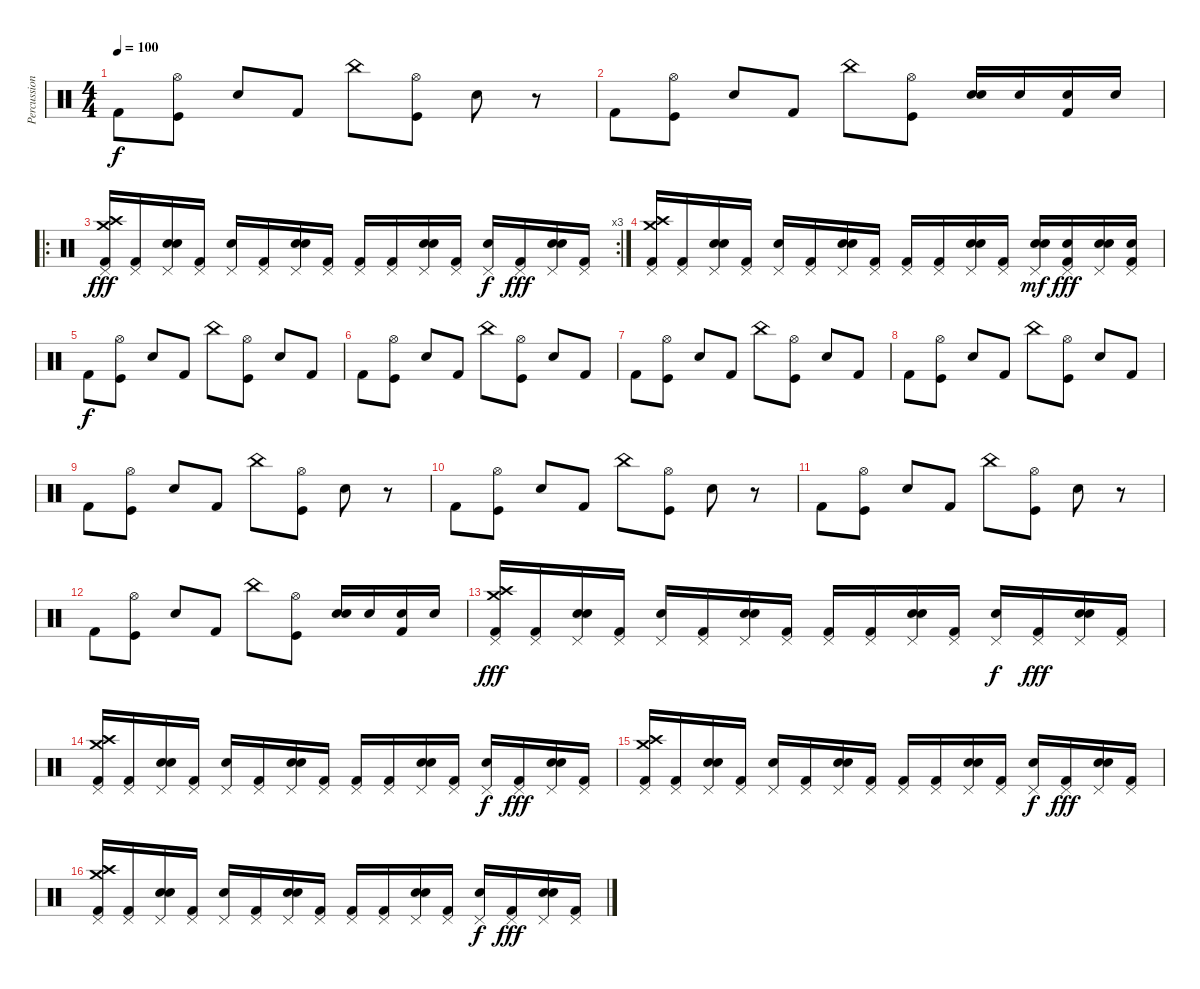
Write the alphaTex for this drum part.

\track ("Percussions" "Percussion") {instrument percussion}
\staff {score}
\articulation defaults
\ts (4 4)
\tempo 100
\clef neutral
\ks c "Kick (hit) 2".8{dy f}
("Hi-Hat (open)" "Kick (hit)").8 "Snare (hit) 2".8 "Kick (hit) 2".8 "China (hit)".8 ("Hi-Hat (open)" "Kick (hit)").8 "Snare (hit) 2".8 r.8 |
"Kick (hit) 2".8 ("Hi-Hat (open)" "Kick (hit)").8 "Snare (hit) 2".8 "Kick (hit) 2".8 "China (hit)".8 ("Hi-Hat (open)" "Kick (hit)").8 ("Electric Snare (hit)" "Snare (hit) 2").16 "Electric Snare (hit)".16 ("Electric Snare (hit)" "Kick (hit) 2").16 "Electric Snare (hit)".16 |
\ro
\rc 3
("Crash high (hit)" "Crash medium (hit)" "Pedal Hi-Hat (hit)" "Kick (hit) 2").16{dy fff} ("Pedal Hi-Hat (hit)" "Kick (hit) 2").16 ("Snare (hit) 2" "Pedal Hi-Hat (hit)" "Snare (hit)").16 ("Pedal Hi-Hat (hit)" "Kick (hit) 2").16 ("Pedal Hi-Hat (hit)" "Snare (hit)").16 ("Pedal Hi-Hat (hit)" "Kick (hit) 2").16 ("Snare (hit) 2" "Pedal Hi-Hat (hit)" "Snare (hit)").16 ("Pedal Hi-Hat (hit)" "Kick (hit) 2").16 ("Pedal Hi-Hat (hit)" "Kick (hit) 2").16 ("Pedal Hi-Hat (hit)" "Kick (hit) 2").16 ("Snare (hit) 2" "Pedal Hi-Hat (hit)" "Snare (hit)").16 ("Pedal Hi-Hat (hit)" "Kick (hit) 2").16 ("Pedal Hi-Hat (hit)" "Snare (hit)").16{dy f} ("Pedal Hi-Hat (hit)" "Kick (hit) 2").16{dy fff} ("Snare (hit) 2" "Pedal Hi-Hat (hit)" "Snare (hit)").16 ("Pedal Hi-Hat (hit)" "Kick (hit) 2").16 |
("Crash high (hit)" "Crash medium (hit)" "Pedal Hi-Hat (hit)" "Kick (hit) 2").16 ("Pedal Hi-Hat (hit)" "Kick (hit) 2").16 ("Snare (hit) 2" "Pedal Hi-Hat (hit)" "Snare (hit)").16 ("Pedal Hi-Hat (hit)" "Kick (hit) 2").16 ("Pedal Hi-Hat (hit)" "Snare (hit)").16 ("Pedal Hi-Hat (hit)" "Kick (hit) 2").16 ("Snare (hit) 2" "Pedal Hi-Hat (hit)" "Snare (hit)").16 ("Pedal Hi-Hat (hit)" "Kick (hit) 2").16 ("Pedal Hi-Hat (hit)" "Kick (hit) 2").16 ("Pedal Hi-Hat (hit)" "Kick (hit) 2").16 ("Snare (hit) 2" "Pedal Hi-Hat (hit)" "Snare (hit)").16 ("Pedal Hi-Hat (hit)" "Kick (hit) 2").16 ("Electric Snare (hit)" "Pedal Hi-Hat (hit)" "Snare (hit)").16{dy mf} ("Electric Snare (hit)" "Pedal Hi-Hat (hit)" "Kick (hit) 2").16{dy fff} ("Snare (hit) 2" "Pedal Hi-Hat (hit)" "Snare (hit)").16 ("Electric Snare (hit)" "Pedal Hi-Hat (hit)" "Kick (hit) 2").16 |
"Kick (hit) 2".8{dy f} ("Hi-Hat (open)" "Kick (hit)").8 "Snare (hit) 2".8 "Kick (hit) 2".8 "China (hit)".8 ("Hi-Hat (open)" "Kick (hit)").8 "Snare (hit) 2".8 "Kick (hit) 2".8 |
"Kick (hit) 2".8 ("Hi-Hat (open)" "Kick (hit)").8 "Snare (hit) 2".8 "Kick (hit) 2".8 "China (hit)".8 ("Hi-Hat (open)" "Kick (hit)").8 "Snare (hit) 2".8 "Kick (hit) 2".8 |
"Kick (hit) 2".8 ("Hi-Hat (open)" "Kick (hit)").8 "Snare (hit) 2".8 "Kick (hit) 2".8 "China (hit)".8 ("Hi-Hat (open)" "Kick (hit)").8 "Snare (hit) 2".8 "Kick (hit) 2".8 |
"Kick (hit) 2".8 ("Hi-Hat (open)" "Kick (hit)").8 "Snare (hit) 2".8 "Kick (hit) 2".8 "China (hit)".8 ("Hi-Hat (open)" "Kick (hit)").8 "Snare (hit) 2".8 "Kick (hit) 2".8 |
"Kick (hit) 2".8 ("Hi-Hat (open)" "Kick (hit)").8 "Snare (hit) 2".8 "Kick (hit) 2".8 "China (hit)".8 ("Hi-Hat (open)" "Kick (hit)").8 "Snare (hit) 2".8 r.8 |
"Kick (hit) 2".8 ("Hi-Hat (open)" "Kick (hit)").8 "Snare (hit) 2".8 "Kick (hit) 2".8 "China (hit)".8 ("Hi-Hat (open)" "Kick (hit)").8 "Snare (hit) 2".8 r.8 |
"Kick (hit) 2".8 ("Hi-Hat (open)" "Kick (hit)").8 "Snare (hit) 2".8 "Kick (hit) 2".8 "China (hit)".8 ("Hi-Hat (open)" "Kick (hit)").8 "Snare (hit) 2".8 r.8 |
"Kick (hit) 2".8 ("Hi-Hat (open)" "Kick (hit)").8 "Snare (hit) 2".8 "Kick (hit) 2".8 "China (hit)".8 ("Hi-Hat (open)" "Kick (hit)").8 ("Electric Snare (hit)" "Snare (hit) 2").16 "Electric Snare (hit)".16 ("Electric Snare (hit)" "Kick (hit) 2").16 "Electric Snare (hit)".16 |
("Crash high (hit)" "Crash medium (hit)" "Pedal Hi-Hat (hit)" "Kick (hit) 2").16{dy fff} ("Pedal Hi-Hat (hit)" "Kick (hit) 2").16 ("Snare (hit) 2" "Pedal Hi-Hat (hit)" "Snare (hit)").16 ("Pedal Hi-Hat (hit)" "Kick (hit) 2").16 ("Pedal Hi-Hat (hit)" "Snare (hit)").16 ("Pedal Hi-Hat (hit)" "Kick (hit) 2").16 ("Snare (hit) 2" "Pedal Hi-Hat (hit)" "Snare (hit)").16 ("Pedal Hi-Hat (hit)" "Kick (hit) 2").16 ("Pedal Hi-Hat (hit)" "Kick (hit) 2").16 ("Pedal Hi-Hat (hit)" "Kick (hit) 2").16 ("Snare (hit) 2" "Pedal Hi-Hat (hit)" "Snare (hit)").16 ("Pedal Hi-Hat (hit)" "Kick (hit) 2").16 ("Pedal Hi-Hat (hit)" "Snare (hit)").16{dy f} ("Pedal Hi-Hat (hit)" "Kick (hit) 2").16{dy fff} ("Snare (hit) 2" "Pedal Hi-Hat (hit)" "Snare (hit)").16 ("Pedal Hi-Hat (hit)" "Kick (hit) 2").16 |
("Crash high (hit)" "Crash medium (hit)" "Pedal Hi-Hat (hit)" "Kick (hit) 2").16 ("Pedal Hi-Hat (hit)" "Kick (hit) 2").16 ("Snare (hit) 2" "Pedal Hi-Hat (hit)" "Snare (hit)").16 ("Pedal Hi-Hat (hit)" "Kick (hit) 2").16 ("Pedal Hi-Hat (hit)" "Snare (hit)").16 ("Pedal Hi-Hat (hit)" "Kick (hit) 2").16 ("Snare (hit) 2" "Pedal Hi-Hat (hit)" "Snare (hit)").16 ("Pedal Hi-Hat (hit)" "Kick (hit) 2").16 ("Pedal Hi-Hat (hit)" "Kick (hit) 2").16 ("Pedal Hi-Hat (hit)" "Kick (hit) 2").16 ("Snare (hit) 2" "Pedal Hi-Hat (hit)" "Snare (hit)").16 ("Pedal Hi-Hat (hit)" "Kick (hit) 2").16 ("Pedal Hi-Hat (hit)" "Snare (hit)").16{dy f} ("Pedal Hi-Hat (hit)" "Kick (hit) 2").16{dy fff} ("Snare (hit) 2" "Pedal Hi-Hat (hit)" "Snare (hit)").16 ("Pedal Hi-Hat (hit)" "Kick (hit) 2").16 |
("Crash high (hit)" "Crash medium (hit)" "Pedal Hi-Hat (hit)" "Kick (hit) 2").16 ("Pedal Hi-Hat (hit)" "Kick (hit) 2").16 ("Snare (hit) 2" "Pedal Hi-Hat (hit)" "Snare (hit)").16 ("Pedal Hi-Hat (hit)" "Kick (hit) 2").16 ("Pedal Hi-Hat (hit)" "Snare (hit)").16 ("Pedal Hi-Hat (hit)" "Kick (hit) 2").16 ("Snare (hit) 2" "Pedal Hi-Hat (hit)" "Snare (hit)").16 ("Pedal Hi-Hat (hit)" "Kick (hit) 2").16 ("Pedal Hi-Hat (hit)" "Kick (hit) 2").16 ("Pedal Hi-Hat (hit)" "Kick (hit) 2").16 ("Snare (hit) 2" "Pedal Hi-Hat (hit)" "Snare (hit)").16 ("Pedal Hi-Hat (hit)" "Kick (hit) 2").16 ("Pedal Hi-Hat (hit)" "Snare (hit)").16{dy f} ("Pedal Hi-Hat (hit)" "Kick (hit) 2").16{dy fff} ("Snare (hit) 2" "Pedal Hi-Hat (hit)" "Snare (hit)").16 ("Pedal Hi-Hat (hit)" "Kick (hit) 2").16 |
("Crash high (hit)" "Crash medium (hit)" "Pedal Hi-Hat (hit)" "Kick (hit) 2").16 ("Pedal Hi-Hat (hit)" "Kick (hit) 2").16 ("Snare (hit) 2" "Pedal Hi-Hat (hit)" "Snare (hit)").16 ("Pedal Hi-Hat (hit)" "Kick (hit) 2").16 ("Pedal Hi-Hat (hit)" "Snare (hit)").16 ("Pedal Hi-Hat (hit)" "Kick (hit) 2").16 ("Snare (hit) 2" "Pedal Hi-Hat (hit)" "Snare (hit)").16 ("Pedal Hi-Hat (hit)" "Kick (hit) 2").16 ("Pedal Hi-Hat (hit)" "Kick (hit) 2").16 ("Pedal Hi-Hat (hit)" "Kick (hit) 2").16 ("Snare (hit) 2" "Pedal Hi-Hat (hit)" "Snare (hit)").16 ("Pedal Hi-Hat (hit)" "Kick (hit) 2").16 ("Pedal Hi-Hat (hit)" "Snare (hit)").16{dy f} ("Pedal Hi-Hat (hit)" "Kick (hit) 2").16{dy fff} ("Snare (hit) 2" "Pedal Hi-Hat (hit)" "Snare (hit)").16 ("Pedal Hi-Hat (hit)" "Kick (hit) 2").16
